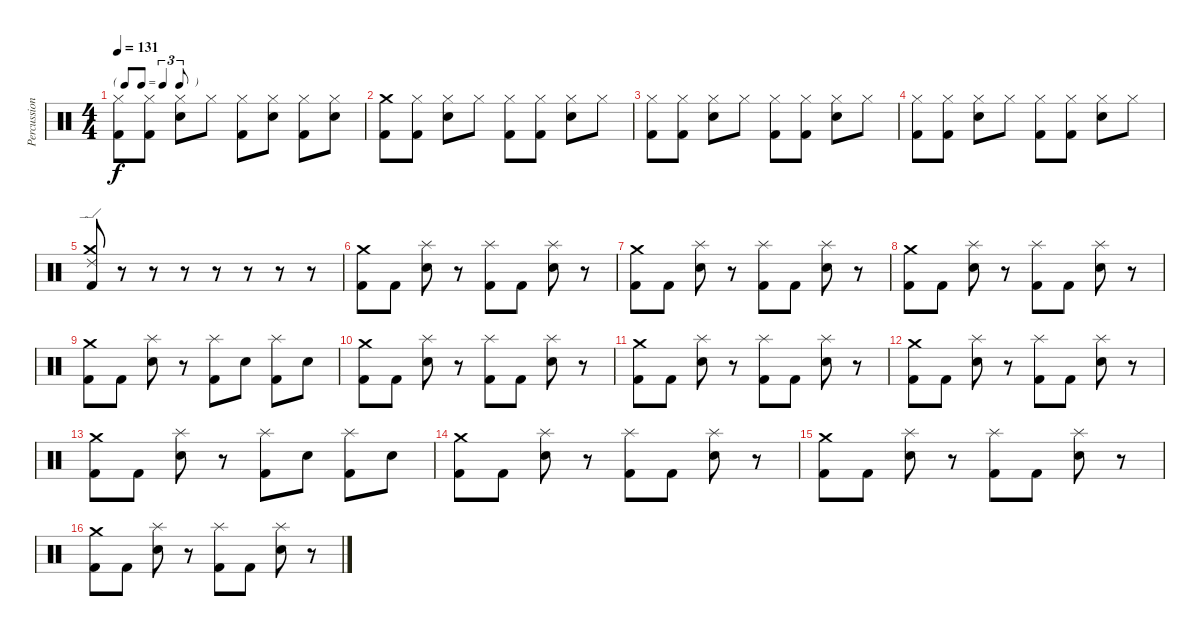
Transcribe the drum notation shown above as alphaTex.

\track ("Percussioni" "Percussion") {instrument percussion}
\staff {score}
\articulation defaults
\ts (4 4)
\tf triplet8th
\tempo 131
\clef neutral
\ks c
("Hi-Hat (closed)" "Kick (hit) 2").8{dy f} ("Hi-Hat (closed)" "Kick (hit) 2").8 ("Hi-Hat (closed)" "Electric Snare (hit)").8 "Hi-Hat (closed)".8 ("Hi-Hat (closed)" "Kick (hit) 2").8 ("Hi-Hat (closed)" "Electric Snare (hit)").8 ("Hi-Hat (closed)" "Kick (hit) 2").8 ("Hi-Hat (closed)" "Electric Snare (hit)").8 |
("Crash medium (hit)" "Kick (hit) 2").8 ("Hi-Hat (closed)" "Kick (hit) 2").8 ("Hi-Hat (closed)" "Electric Snare (hit)").8 "Hi-Hat (closed)".8 ("Hi-Hat (closed)" "Kick (hit) 2").8 ("Hi-Hat (closed)" "Kick (hit) 2").8 ("Hi-Hat (closed)" "Electric Snare (hit)").8 "Hi-Hat (closed)".8 |
("Hi-Hat (closed)" "Kick (hit) 2").8 ("Hi-Hat (closed)" "Kick (hit) 2").8 ("Hi-Hat (closed)" "Electric Snare (hit)").8 "Hi-Hat (closed)".8 ("Hi-Hat (closed)" "Kick (hit) 2").8 ("Hi-Hat (closed)" "Kick (hit) 2").8 ("Hi-Hat (closed)" "Electric Snare (hit)").8 "Hi-Hat (closed)".8 |
("Hi-Hat (closed)" "Kick (hit) 2").8 ("Hi-Hat (closed)" "Kick (hit) 2").8 ("Hi-Hat (closed)" "Electric Snare (hit)").8 "Hi-Hat (closed)".8 ("Hi-Hat (closed)" "Kick (hit) 2").8 ("Hi-Hat (closed)" "Kick (hit) 2").8 ("Hi-Hat (closed)" "Electric Snare (hit)").8 "Hi-Hat (closed)".8 |
("Ride (edge) 2" "Crash medium (hit)" "Kick (hit) 2").8 r.8 r.8 r.8 r.8 r.8 r.8 r.8 |
("Crash medium (hit)" "Kick (hit) 2").8 "Kick (hit) 2".8 ("Splash (hit)" "Electric Snare (hit)").8 r.8 ("Splash (hit)" "Kick (hit) 2").8 "Kick (hit) 2".8 ("Splash (hit)" "Electric Snare (hit)").8 r.8 |
("Crash medium (hit)" "Kick (hit) 2").8 "Kick (hit) 2".8 ("Splash (hit)" "Electric Snare (hit)").8 r.8 ("Splash (hit)" "Kick (hit) 2").8 "Kick (hit) 2".8 ("Splash (hit)" "Electric Snare (hit)").8 r.8 |
("Crash medium (hit)" "Kick (hit) 2").8 "Kick (hit) 2".8 ("Splash (hit)" "Electric Snare (hit)").8 r.8 ("Splash (hit)" "Kick (hit) 2").8 "Kick (hit) 2".8 ("Splash (hit)" "Electric Snare (hit)").8 r.8 |
("Crash medium (hit)" "Kick (hit) 2").8 "Kick (hit) 2".8 ("Splash (hit)" "Electric Snare (hit)").8 r.8 ("Splash (hit)" "Kick (hit) 2").8 "Electric Snare (hit)".8 ("Splash (hit)" "Kick (hit) 2").8 "Electric Snare (hit)".8 |
("Crash medium (hit)" "Kick (hit) 2").8 "Kick (hit) 2".8 ("Splash (hit)" "Electric Snare (hit)").8 r.8 ("Splash (hit)" "Kick (hit) 2").8 "Kick (hit) 2".8 ("Splash (hit)" "Electric Snare (hit)").8 r.8 |
("Crash medium (hit)" "Kick (hit) 2").8 "Kick (hit) 2".8 ("Splash (hit)" "Electric Snare (hit)").8 r.8 ("Splash (hit)" "Kick (hit) 2").8 "Kick (hit) 2".8 ("Splash (hit)" "Electric Snare (hit)").8 r.8 |
("Crash medium (hit)" "Kick (hit) 2").8 "Kick (hit) 2".8 ("Splash (hit)" "Electric Snare (hit)").8 r.8 ("Splash (hit)" "Kick (hit) 2").8 "Kick (hit) 2".8 ("Splash (hit)" "Electric Snare (hit)").8 r.8 |
("Crash medium (hit)" "Kick (hit) 2").8 "Kick (hit) 2".8 ("Splash (hit)" "Electric Snare (hit)").8 r.8 ("Splash (hit)" "Kick (hit) 2").8 "Electric Snare (hit)".8 ("Splash (hit)" "Kick (hit) 2").8 "Electric Snare (hit)".8 |
("Crash medium (hit)" "Kick (hit) 2").8 "Kick (hit) 2".8 ("Splash (hit)" "Electric Snare (hit)").8 r.8 ("Splash (hit)" "Kick (hit) 2").8 "Kick (hit) 2".8 ("Splash (hit)" "Electric Snare (hit)").8 r.8 |
("Crash medium (hit)" "Kick (hit) 2").8 "Kick (hit) 2".8 ("Splash (hit)" "Electric Snare (hit)").8 r.8 ("Splash (hit)" "Kick (hit) 2").8 "Kick (hit) 2".8 ("Splash (hit)" "Electric Snare (hit)").8 r.8 |
("Crash medium (hit)" "Kick (hit) 2").8 "Kick (hit) 2".8 ("Splash (hit)" "Electric Snare (hit)").8 r.8 ("Splash (hit)" "Kick (hit) 2").8 "Kick (hit) 2".8 ("Splash (hit)" "Electric Snare (hit)").8 r.8
